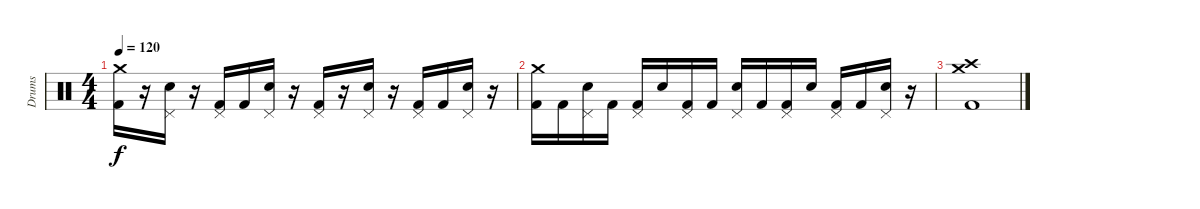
\track ("Drums" "Drums") {instrument percussion}
\staff {score}
\articulation defaults
\ts (4 4)
\tempo 120
\clef neutral
\ks c
("Crash medium (hit)" "Kick (hit) 2").16{dy f} r.16 ("Pedal Hi-Hat (hit)" "Snare (hit) 2").16 r.16 ("Pedal Hi-Hat (hit)" "Kick (hit) 2").16 "Kick (hit) 2".16 ("Pedal Hi-Hat (hit)" "Snare (hit) 2").16 r.16 ("Pedal Hi-Hat (hit)" "Kick (hit) 2").16 r.16 ("Pedal Hi-Hat (hit)" "Snare (hit) 2").16 r.16 ("Pedal Hi-Hat (hit)" "Kick (hit) 2").16 "Kick (hit) 2".16 ("Pedal Hi-Hat (hit)" "Snare (hit) 2").16 r.16 |
("Crash medium (hit)" "Kick (hit) 2").16 "Kick (hit) 2".16 ("Pedal Hi-Hat (hit)" "Snare (hit) 2").16 "Kick (hit) 2".16 ("Pedal Hi-Hat (hit)" "Kick (hit) 2").16 "Snare (hit) 2".16 ("Pedal Hi-Hat (hit)" "Kick (hit) 2").16 "Kick (hit) 2".16 ("Pedal Hi-Hat (hit)" "Snare (hit) 2").16 "Kick (hit) 2".16 ("Pedal Hi-Hat (hit)" "Kick (hit) 2").16 "Snare (hit) 2".16 ("Pedal Hi-Hat (hit)" "Kick (hit) 2").16 "Kick (hit) 2".16 ("Pedal Hi-Hat (hit)" "Snare (hit) 2").16 r.16 |
("Crash medium (hit)" "Crash high (hit)" "Kick (hit) 2").1
